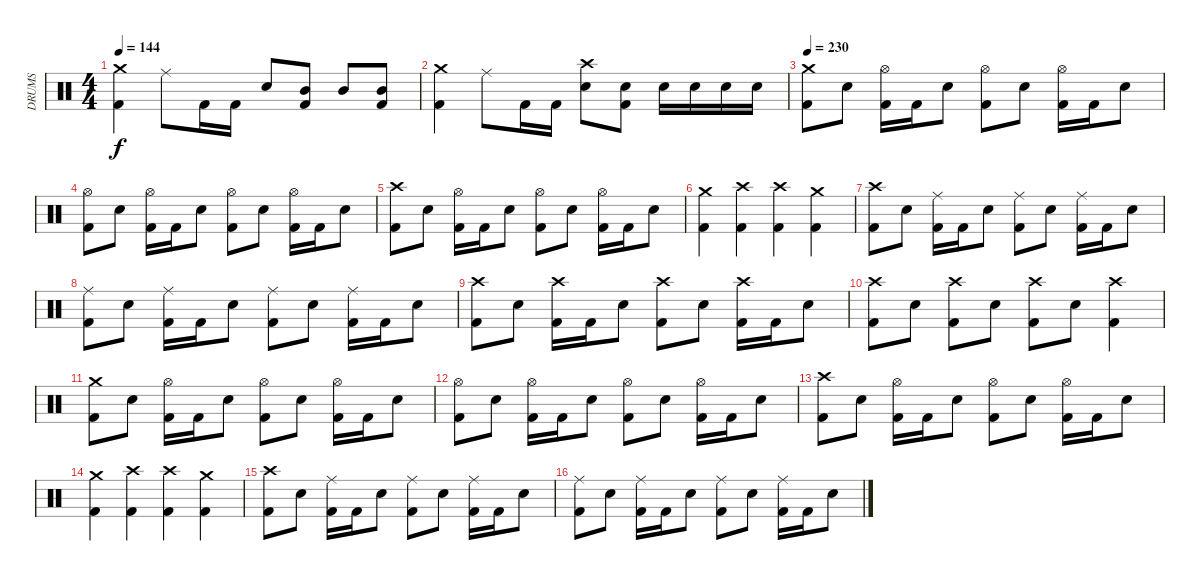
\track ("DRUMS" "DRUMS") {instrument percussion}
\staff {score}
\articulation defaults
\ts (4 4)
\tempo 144
\clef neutral
\ks c
("Kick (hit) 2" "Crash medium (hit)").4{dy f} "Ride (middle)".8 "Kick (hit) 2".16 "Kick (hit) 2".16 "Snare (hit) 2".8 ("Kick (hit) 2" "Mid Tom (hit)").8 "Mid Tom (hit)".8 ("Kick (hit) 2" "Mid Tom (hit)").8 |
("Kick (hit) 2" "Crash medium (hit)").4 "Ride (middle)".8 "Kick (hit) 2".16 "Kick (hit) 2".16 ("Snare (hit) 2" "Crash high (hit)").8 ("Kick (hit) 2" "Snare (hit) 2").8 "Snare (hit) 2".16 "Snare (hit) 2".16 "Snare (hit) 2".16 "Snare (hit) 2".16 |
\tempo 230
("Kick (hit) 2" "Crash medium (hit)").8 "Snare (hit) 2".8 ("Kick (hit) 2" "Hi-Hat (open)").16 "Kick (hit) 2".16 "Snare (hit) 2".8 ("Kick (hit) 2" "Hi-Hat (open)").8 "Snare (hit) 2".8 ("Kick (hit) 2" "Hi-Hat (open)").16 "Kick (hit) 2".16 "Snare (hit) 2".8 |
("Kick (hit) 2" "Hi-Hat (open)").8 "Snare (hit) 2".8 ("Kick (hit) 2" "Hi-Hat (open)").16 "Kick (hit) 2".16 "Snare (hit) 2".8 ("Kick (hit) 2" "Hi-Hat (open)").8 "Snare (hit) 2".8 ("Kick (hit) 2" "Hi-Hat (open)").16 "Kick (hit) 2".16 "Snare (hit) 2".8 |
("Kick (hit) 2" "Crash high (hit)").8 "Snare (hit) 2".8 ("Kick (hit) 2" "Hi-Hat (open)").16 "Kick (hit) 2".16 "Snare (hit) 2".8 ("Kick (hit) 2" "Hi-Hat (open)").8 "Snare (hit) 2".8 ("Kick (hit) 2" "Hi-Hat (open)").16 "Kick (hit) 2".16 "Snare (hit) 2".8 |
("Kick (hit) 2" "Crash medium (hit)").4 ("Kick (hit) 2" "Crash high (hit)").4 ("Kick (hit) 2" "Crash high (hit)").4 ("Kick (hit) 2" "Crash medium (hit)").4 |
("Kick (hit) 2" "Crash high (hit)").8 "Snare (hit) 2".8 ("Kick (hit) 2" "Ride (middle)").16 "Kick (hit) 2".16 "Snare (hit) 2".8 ("Kick (hit) 2" "Ride (middle)").8 "Snare (hit) 2".8 ("Kick (hit) 2" "Ride (middle)").16 "Kick (hit) 2".16 "Snare (hit) 2".8 |
("Kick (hit) 2" "Ride (middle)").8 "Snare (hit) 2".8 ("Kick (hit) 2" "Ride (middle)").16 "Kick (hit) 2".16 "Snare (hit) 2".8 ("Kick (hit) 2" "Ride (middle)").8 "Snare (hit) 2".8 ("Kick (hit) 2" "Ride (middle)").16 "Kick (hit) 2".16 "Snare (hit) 2".8 |
("Kick (hit) 2" "Crash high (hit)").8 "Snare (hit) 2".8 ("Kick (hit) 2" "Crash high (hit)").16 "Kick (hit) 2".16 "Snare (hit) 2".8 ("Kick (hit) 2" "Crash high (hit)").8 "Snare (hit) 2".8 ("Kick (hit) 2" "Crash high (hit)").16 "Kick (hit) 2".16 "Snare (hit) 2".8 |
("Kick (hit) 2" "Crash high (hit)").8 "Snare (hit) 2".8 ("Kick (hit) 2" "Crash high (hit)").8 "Snare (hit) 2".8 ("Kick (hit) 2" "Crash high (hit)").8 "Snare (hit) 2".8 ("Kick (hit) 2" "Crash high (hit)").4 |
("Kick (hit) 2" "Crash medium (hit)").8 "Snare (hit) 2".8 ("Kick (hit) 2" "Hi-Hat (open)").16 "Kick (hit) 2".16 "Snare (hit) 2".8 ("Kick (hit) 2" "Hi-Hat (open)").8 "Snare (hit) 2".8 ("Kick (hit) 2" "Hi-Hat (open)").16 "Kick (hit) 2".16 "Snare (hit) 2".8 |
("Kick (hit) 2" "Hi-Hat (open)").8 "Snare (hit) 2".8 ("Kick (hit) 2" "Hi-Hat (open)").16 "Kick (hit) 2".16 "Snare (hit) 2".8 ("Kick (hit) 2" "Hi-Hat (open)").8 "Snare (hit) 2".8 ("Kick (hit) 2" "Hi-Hat (open)").16 "Kick (hit) 2".16 "Snare (hit) 2".8 |
("Kick (hit) 2" "Crash high (hit)").8 "Snare (hit) 2".8 ("Kick (hit) 2" "Hi-Hat (open)").16 "Kick (hit) 2".16 "Snare (hit) 2".8 ("Kick (hit) 2" "Hi-Hat (open)").8 "Snare (hit) 2".8 ("Kick (hit) 2" "Hi-Hat (open)").16 "Kick (hit) 2".16 "Snare (hit) 2".8 |
("Kick (hit) 2" "Crash medium (hit)").4 ("Kick (hit) 2" "Crash high (hit)").4 ("Kick (hit) 2" "Crash high (hit)").4 ("Kick (hit) 2" "Crash medium (hit)").4 |
("Kick (hit) 2" "Crash high (hit)").8 "Snare (hit) 2".8 ("Kick (hit) 2" "Ride (middle)").16 "Kick (hit) 2".16 "Snare (hit) 2".8 ("Kick (hit) 2" "Ride (middle)").8 "Snare (hit) 2".8 ("Kick (hit) 2" "Ride (middle)").16 "Kick (hit) 2".16 "Snare (hit) 2".8 |
("Kick (hit) 2" "Ride (middle)").8 "Snare (hit) 2".8 ("Kick (hit) 2" "Ride (middle)").16 "Kick (hit) 2".16 "Snare (hit) 2".8 ("Kick (hit) 2" "Ride (middle)").8 "Snare (hit) 2".8 ("Kick (hit) 2" "Ride (middle)").16 "Kick (hit) 2".16 "Snare (hit) 2".8
